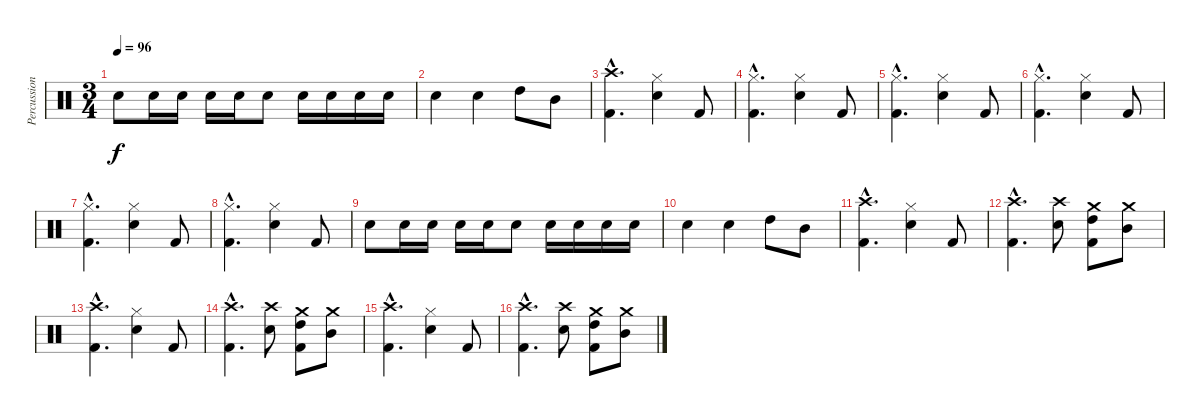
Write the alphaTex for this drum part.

\track ("Percussions" "Percussion") {instrument percussion}
\staff {score}
\articulation defaults
\ts (3 4)
\tempo 96
\clef neutral
\ks c "Snare (hit) 2".8{dy f} "Snare (hit) 2".16 "Snare (hit) 2".16 "Snare (hit) 2".16 "Snare (hit) 2".16 "Snare (hit) 2".8 "Snare (hit) 2".16 "Snare (hit) 2".16 "Snare (hit) 2".16 "Snare (hit) 2".16
|
"Snare (hit) 2".4 "Snare (hit) 2".4 "High Tom (hit)".8 "Mid Tom (hit)".8 |
("Crash high (hit)"{hac} "Kick (hit) 2"{hac}).4{d} ("Hi-Hat (closed)" "Snare (hit) 2").4 "Kick (hit) 2".8 |
("Hi-Hat (closed)"{hac} "Kick (hit) 2"{hac}).4{d} ("Hi-Hat (closed)" "Snare (hit) 2").4 "Kick (hit) 2".8 |
("Hi-Hat (closed)"{hac} "Kick (hit) 2"{hac}).4{d} ("Hi-Hat (closed)" "Snare (hit) 2").4 "Kick (hit) 2".8 |
("Hi-Hat (closed)"{hac} "Kick (hit) 2"{hac}).4{d} ("Hi-Hat (closed)" "Snare (hit) 2").4 "Kick (hit) 2".8 |
("Hi-Hat (closed)"{hac} "Kick (hit) 2"{hac}).4{d} ("Hi-Hat (closed)" "Snare (hit) 2").4 "Kick (hit) 2".8 |
("Hi-Hat (closed)"{hac} "Kick (hit) 2"{hac}).4{d} ("Hi-Hat (closed)" "Snare (hit) 2").4 "Kick (hit) 2".8 |
"Snare (hit) 2".8 "Snare (hit) 2".16 "Snare (hit) 2".16 "Snare (hit) 2".16 "Snare (hit) 2".16 "Snare (hit) 2".8 "Snare (hit) 2".16 "Snare (hit) 2".16 "Snare (hit) 2".16 "Snare (hit) 2".16 |
"Snare (hit) 2".4 "Snare (hit) 2".4 "High Tom (hit)".8 "Mid Tom (hit)".8 |
("Crash high (hit)"{hac} "Kick (hit) 2"{hac}).4{d} ("Hi-Hat (closed)" "Snare (hit) 2").4 "Kick (hit) 2".8 |
("Crash high (hit)"{hac} "Kick (hit) 2"{hac}).4{d} ("Crash high (hit)" "Snare (hit) 2").8 ("Crash medium (hit)" "High Tom (hit)" "Kick (hit) 2").8 ("Crash medium (hit)" "Mid Tom (hit)").8 |
("Crash high (hit)"{hac} "Kick (hit) 2"{hac}).4{d} ("Hi-Hat (closed)" "Snare (hit) 2").4 "Kick (hit) 2".8 |
("Crash high (hit)"{hac} "Kick (hit) 2"{hac}).4{d} ("Crash high (hit)" "Snare (hit) 2").8 ("Crash medium (hit)" "High Tom (hit)" "Kick (hit) 2").8 ("Crash medium (hit)" "Mid Tom (hit)").8 |
("Crash high (hit)"{hac} "Kick (hit) 2"{hac}).4{d} ("Hi-Hat (closed)" "Snare (hit) 2").4 "Kick (hit) 2".8 |
("Crash high (hit)"{hac} "Kick (hit) 2"{hac}).4{d} ("Crash high (hit)" "Snare (hit) 2").8 ("Crash medium (hit)" "High Tom (hit)" "Kick (hit) 2").8 ("Crash medium (hit)" "Mid Tom (hit)").8
